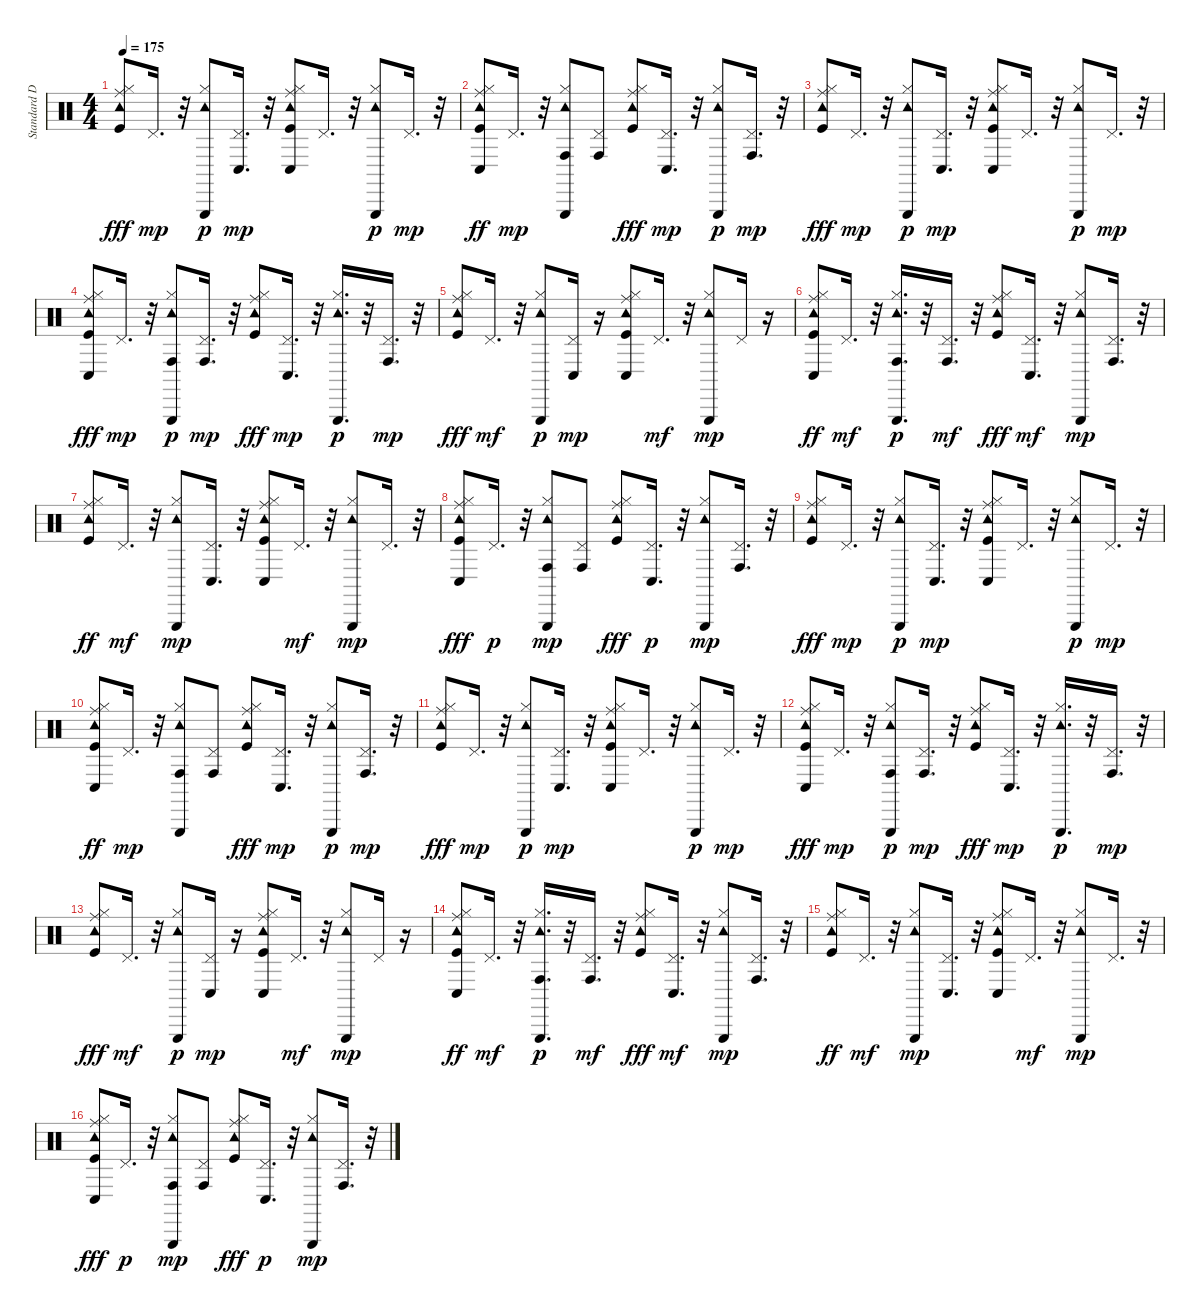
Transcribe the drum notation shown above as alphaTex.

\track ("Standard Drums" "Standard D") {instrument percussion}
\staff {score}
\articulation defaults
\ts (4 4)
\tempo 175
\clef neutral
\ks c
("Kick (hit)" "Hi-Hat (closed)" "Tambourine (hit)" "Ride (middle)").8{dy fff} "Pedal Hi-Hat (hit)".16{d dy mp} r.32 ("Hi-Hat (closed)" "Triangle (hit)" "Tambourine (hit)").8{dy p} ("Pedal Hi-Hat (hit)" "Conga low (hit)").16{d dy mp} r.32 ("Kick (hit)" "Hi-Hat (closed)" "Tambourine (hit)" "Conga low (hit)" "Ride (middle)").8 "Pedal Hi-Hat (hit)".16{d} r.32 ("Hi-Hat (closed)" "Triangle (hit)" "Tambourine (hit)").8{dy p} "Pedal Hi-Hat (hit)".16{d dy mp} r.32 |
("Kick (hit)" "Hi-Hat (closed)" "Tambourine (hit)" "Conga low (hit)" "Ride (middle)").8{dy ff} "Pedal Hi-Hat (hit)".16{d dy mp} r.32 ("Hi-Hat (closed)" "Triangle (hit)" "Tambourine (hit)" "Conga high (hit)").8 ("Pedal Hi-Hat (hit)" "Conga high (hit)").8 ("Kick (hit)" "Hi-Hat (closed)" "Tambourine (hit)" "Ride (middle)").8{dy fff} ("Pedal Hi-Hat (hit)" "Conga low (hit)").16{d dy mp} r.32 ("Hi-Hat (closed)" "Triangle (hit)" "Tambourine (hit)").8{dy p} ("Pedal Hi-Hat (hit)" "Conga high (hit)").16{d dy mp} r.32 |
("Kick (hit)" "Hi-Hat (closed)" "Tambourine (hit)" "Ride (middle)").8{dy fff} "Pedal Hi-Hat (hit)".16{d dy mp} r.32 ("Hi-Hat (closed)" "Triangle (hit)" "Tambourine (hit)").8{dy p} ("Pedal Hi-Hat (hit)" "Conga low (hit)").16{d dy mp} r.32 ("Kick (hit)" "Hi-Hat (closed)" "Tambourine (hit)" "Conga low (hit)" "Ride (middle)").8 "Pedal Hi-Hat (hit)".16{d} r.32 ("Hi-Hat (closed)" "Triangle (hit)" "Tambourine (hit)").8{dy p} "Pedal Hi-Hat (hit)".16{d dy mp} r.32 |
("Kick (hit)" "Hi-Hat (closed)" "Tambourine (hit)" "Conga low (hit)" "Ride (middle)").8{dy fff} "Pedal Hi-Hat (hit)".16{d dy mp} r.32 ("Hi-Hat (closed)" "Triangle (hit)" "Tambourine (hit)" "Conga high (hit)").8{dy p} ("Pedal Hi-Hat (hit)" "Conga high (hit)").16{d dy mp} r.32 ("Kick (hit)" "Hi-Hat (closed)" "Tambourine (hit)" "Ride (middle)").8{dy fff} ("Pedal Hi-Hat (hit)" "Conga low (hit)").16{d dy mp} r.32 ("Hi-Hat (closed)" "Triangle (hit)" "Tambourine (hit)").16{d dy p} r.32 ("Pedal Hi-Hat (hit)" "Conga high (hit)").16{d dy mp} r.32 |
("Kick (hit)" "Hi-Hat (closed)" "Tambourine (hit)" "Ride (middle)").8{dy fff} "Pedal Hi-Hat (hit)".16{d dy mf} r.32 ("Hi-Hat (closed)" "Triangle (hit)" "Tambourine (hit)").8{dy p} ("Pedal Hi-Hat (hit)" "Conga low (hit)").16{dy mp} r.16 ("Kick (hit)" "Hi-Hat (closed)" "Tambourine (hit)" "Conga low (hit)" "Ride (middle)").8 "Pedal Hi-Hat (hit)".16{d dy mf} r.32 ("Hi-Hat (closed)" "Triangle (hit)" "Tambourine (hit)").8{dy mp} "Pedal Hi-Hat (hit)".16 r.16 |
("Kick (hit)" "Hi-Hat (closed)" "Tambourine (hit)" "Conga low (hit)" "Ride (middle)").8{dy ff} "Pedal Hi-Hat (hit)".16{d dy mf} r.32 ("Hi-Hat (closed)" "Triangle (hit)" "Tambourine (hit)" "Conga high (hit)").16{d dy p} r.32 ("Pedal Hi-Hat (hit)" "Conga high (hit)").16{d dy mf} r.32 ("Kick (hit)" "Hi-Hat (closed)" "Tambourine (hit)" "Ride (middle)").8{dy fff} ("Pedal Hi-Hat (hit)" "Conga low (hit)").16{d dy mf} r.32 ("Hi-Hat (closed)" "Triangle (hit)" "Tambourine (hit)").8{dy mp} ("Pedal Hi-Hat (hit)" "Conga high (hit)").16{d} r.32 |
("Kick (hit)" "Hi-Hat (closed)" "Tambourine (hit)" "Ride (middle)").8{dy ff} "Pedal Hi-Hat (hit)".16{d dy mf} r.32 ("Hi-Hat (closed)" "Triangle (hit)" "Tambourine (hit)").8{dy mp} ("Pedal Hi-Hat (hit)" "Conga low (hit)").16{d} r.32 ("Kick (hit)" "Hi-Hat (closed)" "Tambourine (hit)" "Conga low (hit)" "Ride (middle)").8 "Pedal Hi-Hat (hit)".16{d dy mf} r.32 ("Hi-Hat (closed)" "Triangle (hit)" "Tambourine (hit)").8{dy mp} "Pedal Hi-Hat (hit)".16{d} r.32 |
("Kick (hit)" "Hi-Hat (closed)" "Tambourine (hit)" "Conga low (hit)" "Ride (middle)").8{dy fff} "Pedal Hi-Hat (hit)".16{d dy p} r.32 ("Hi-Hat (closed)" "Triangle (hit)" "Tambourine (hit)" "Conga high (hit)").8{dy mp} ("Pedal Hi-Hat (hit)" "Conga high (hit)").8 ("Kick (hit)" "Hi-Hat (closed)" "Tambourine (hit)" "Ride (middle)").8{dy fff} ("Pedal Hi-Hat (hit)" "Conga low (hit)").16{d dy p} r.32 ("Hi-Hat (closed)" "Triangle (hit)" "Tambourine (hit)").8{dy mp} ("Pedal Hi-Hat (hit)" "Conga high (hit)").16{d} r.32 |
("Kick (hit)" "Hi-Hat (closed)" "Tambourine (hit)" "Ride (middle)").8{dy fff} "Pedal Hi-Hat (hit)".16{d dy mp} r.32 ("Hi-Hat (closed)" "Triangle (hit)" "Tambourine (hit)").8{dy p} ("Pedal Hi-Hat (hit)" "Conga low (hit)").16{d dy mp} r.32 ("Kick (hit)" "Hi-Hat (closed)" "Tambourine (hit)" "Conga low (hit)" "Ride (middle)").8 "Pedal Hi-Hat (hit)".16{d} r.32 ("Hi-Hat (closed)" "Triangle (hit)" "Tambourine (hit)").8{dy p} "Pedal Hi-Hat (hit)".16{d dy mp} r.32 |
("Kick (hit)" "Hi-Hat (closed)" "Tambourine (hit)" "Conga low (hit)" "Ride (middle)").8{dy ff} "Pedal Hi-Hat (hit)".16{d dy mp} r.32 ("Hi-Hat (closed)" "Triangle (hit)" "Tambourine (hit)" "Conga high (hit)").8 ("Pedal Hi-Hat (hit)" "Conga high (hit)").8 ("Kick (hit)" "Hi-Hat (closed)" "Tambourine (hit)" "Ride (middle)").8{dy fff} ("Pedal Hi-Hat (hit)" "Conga low (hit)").16{d dy mp} r.32 ("Hi-Hat (closed)" "Triangle (hit)" "Tambourine (hit)").8{dy p} ("Pedal Hi-Hat (hit)" "Conga high (hit)").16{d dy mp} r.32 |
("Kick (hit)" "Hi-Hat (closed)" "Tambourine (hit)" "Ride (middle)").8{dy fff} "Pedal Hi-Hat (hit)".16{d dy mp} r.32 ("Hi-Hat (closed)" "Triangle (hit)" "Tambourine (hit)").8{dy p} ("Pedal Hi-Hat (hit)" "Conga low (hit)").16{d dy mp} r.32 ("Kick (hit)" "Hi-Hat (closed)" "Tambourine (hit)" "Conga low (hit)" "Ride (middle)").8 "Pedal Hi-Hat (hit)".16{d} r.32 ("Hi-Hat (closed)" "Triangle (hit)" "Tambourine (hit)").8{dy p} "Pedal Hi-Hat (hit)".16{d dy mp} r.32 |
("Kick (hit)" "Hi-Hat (closed)" "Tambourine (hit)" "Conga low (hit)" "Ride (middle)").8{dy fff} "Pedal Hi-Hat (hit)".16{d dy mp} r.32 ("Hi-Hat (closed)" "Triangle (hit)" "Tambourine (hit)" "Conga high (hit)").8{dy p} ("Pedal Hi-Hat (hit)" "Conga high (hit)").16{d dy mp} r.32 ("Kick (hit)" "Hi-Hat (closed)" "Tambourine (hit)" "Ride (middle)").8{dy fff} ("Pedal Hi-Hat (hit)" "Conga low (hit)").16{d dy mp} r.32 ("Hi-Hat (closed)" "Triangle (hit)" "Tambourine (hit)").16{d dy p} r.32 ("Pedal Hi-Hat (hit)" "Conga high (hit)").16{d dy mp} r.32 |
("Kick (hit)" "Hi-Hat (closed)" "Tambourine (hit)" "Ride (middle)").8{dy fff} "Pedal Hi-Hat (hit)".16{d dy mf} r.32 ("Hi-Hat (closed)" "Triangle (hit)" "Tambourine (hit)").8{dy p} ("Pedal Hi-Hat (hit)" "Conga low (hit)").16{dy mp} r.16 ("Kick (hit)" "Hi-Hat (closed)" "Tambourine (hit)" "Conga low (hit)" "Ride (middle)").8 "Pedal Hi-Hat (hit)".16{d dy mf} r.32 ("Hi-Hat (closed)" "Triangle (hit)" "Tambourine (hit)").8{dy mp} "Pedal Hi-Hat (hit)".16 r.16 |
("Kick (hit)" "Hi-Hat (closed)" "Tambourine (hit)" "Conga low (hit)" "Ride (middle)").8{dy ff} "Pedal Hi-Hat (hit)".16{d dy mf} r.32 ("Hi-Hat (closed)" "Triangle (hit)" "Tambourine (hit)" "Conga high (hit)").16{d dy p} r.32 ("Pedal Hi-Hat (hit)" "Conga high (hit)").16{d dy mf} r.32 ("Kick (hit)" "Hi-Hat (closed)" "Tambourine (hit)" "Ride (middle)").8{dy fff} ("Pedal Hi-Hat (hit)" "Conga low (hit)").16{d dy mf} r.32 ("Hi-Hat (closed)" "Triangle (hit)" "Tambourine (hit)").8{dy mp} ("Pedal Hi-Hat (hit)" "Conga high (hit)").16{d} r.32 |
("Kick (hit)" "Hi-Hat (closed)" "Tambourine (hit)" "Ride (middle)").8{dy ff} "Pedal Hi-Hat (hit)".16{d dy mf} r.32 ("Hi-Hat (closed)" "Triangle (hit)" "Tambourine (hit)").8{dy mp} ("Pedal Hi-Hat (hit)" "Conga low (hit)").16{d} r.32 ("Kick (hit)" "Hi-Hat (closed)" "Tambourine (hit)" "Conga low (hit)" "Ride (middle)").8 "Pedal Hi-Hat (hit)".16{d dy mf} r.32 ("Hi-Hat (closed)" "Triangle (hit)" "Tambourine (hit)").8{dy mp} "Pedal Hi-Hat (hit)".16{d} r.32 |
("Kick (hit)" "Hi-Hat (closed)" "Tambourine (hit)" "Conga low (hit)" "Ride (middle)").8{dy fff} "Pedal Hi-Hat (hit)".16{d dy p} r.32 ("Hi-Hat (closed)" "Triangle (hit)" "Tambourine (hit)" "Conga high (hit)").8{dy mp} ("Pedal Hi-Hat (hit)" "Conga high (hit)").8 ("Kick (hit)" "Hi-Hat (closed)" "Tambourine (hit)" "Ride (middle)").8{dy fff} ("Pedal Hi-Hat (hit)" "Conga low (hit)").16{d dy p} r.32 ("Hi-Hat (closed)" "Triangle (hit)" "Tambourine (hit)").8{dy mp} ("Pedal Hi-Hat (hit)" "Conga high (hit)").16{d} r.32
